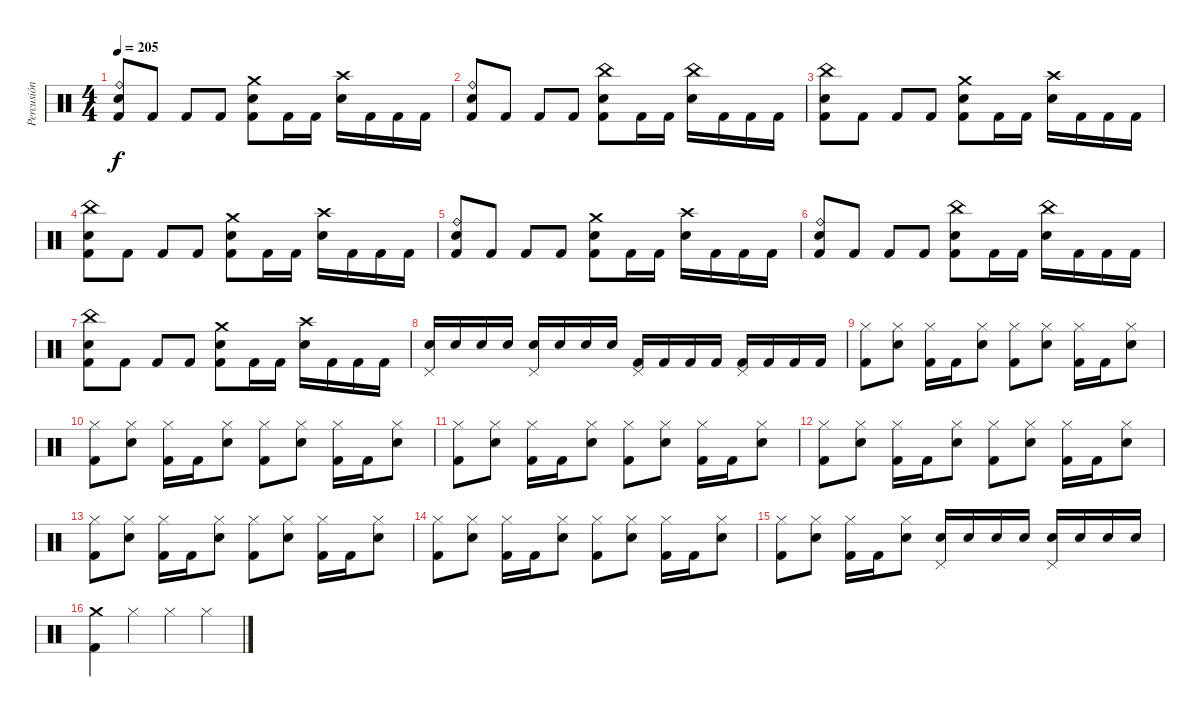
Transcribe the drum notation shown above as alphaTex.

\track ("Percusión" "Percusión") {instrument percussion}
\staff {score}
\articulation defaults
\ts (4 4)
\tempo 205
\clef neutral
\ks c
("Snare (hit) 2" "Ride (bell)" "Kick (hit) 2").8{dy f} "Kick (hit) 2".8 "Kick (hit) 2".8 "Kick (hit) 2".8 ("Snare (hit) 2" "Crash medium (hit)" "Kick (hit) 2").8 "Kick (hit) 2".16 "Kick (hit) 2".16 ("Crash high (hit)" "Snare (hit) 2").16 "Kick (hit) 2".16 "Kick (hit) 2".16 "Kick (hit) 2".16 |
("Snare (hit) 2" "Ride (bell)" "Kick (hit) 2").8 "Kick (hit) 2".8 "Kick (hit) 2".8 "Kick (hit) 2".8 ("Snare (hit) 2" "China (hit)" "Kick (hit) 2").8 "Kick (hit) 2".16 "Kick (hit) 2".16 ("China (hit)" "Snare (hit) 2").16 "Kick (hit) 2".16 "Kick (hit) 2".16 "Kick (hit) 2".16 |
("Snare (hit) 2" "China (hit)" "Kick (hit) 2").8 "Kick (hit) 2".8 "Kick (hit) 2".8 "Kick (hit) 2".8 ("Snare (hit) 2" "Crash medium (hit)" "Kick (hit) 2").8 "Kick (hit) 2".16 "Kick (hit) 2".16 ("Crash high (hit)" "Snare (hit) 2").16 "Kick (hit) 2".16 "Kick (hit) 2".16 "Kick (hit) 2".16 |
("Snare (hit) 2" "China (hit)" "Kick (hit) 2").8 "Kick (hit) 2".8 "Kick (hit) 2".8 "Kick (hit) 2".8 ("Snare (hit) 2" "Crash medium (hit)" "Kick (hit) 2").8 "Kick (hit) 2".16 "Kick (hit) 2".16 ("Crash high (hit)" "Snare (hit) 2").16 "Kick (hit) 2".16 "Kick (hit) 2".16 "Kick (hit) 2".16 |
("Snare (hit) 2" "Ride (bell)" "Kick (hit) 2").8 "Kick (hit) 2".8 "Kick (hit) 2".8 "Kick (hit) 2".8 ("Snare (hit) 2" "Crash medium (hit)" "Kick (hit) 2").8 "Kick (hit) 2".16 "Kick (hit) 2".16 ("Crash high (hit)" "Snare (hit) 2").16 "Kick (hit) 2".16 "Kick (hit) 2".16 "Kick (hit) 2".16 |
("Snare (hit) 2" "Ride (bell)" "Kick (hit) 2").8 "Kick (hit) 2".8 "Kick (hit) 2".8 "Kick (hit) 2".8 ("Snare (hit) 2" "China (hit)" "Kick (hit) 2").8 "Kick (hit) 2".16 "Kick (hit) 2".16 ("China (hit)" "Snare (hit) 2").16 "Kick (hit) 2".16 "Kick (hit) 2".16 "Kick (hit) 2".16 |
("Snare (hit) 2" "China (hit)" "Kick (hit) 2").8 "Kick (hit) 2".8 "Kick (hit) 2".8 "Kick (hit) 2".8 ("Snare (hit) 2" "Crash medium (hit)" "Kick (hit) 2").8 "Kick (hit) 2".16 "Kick (hit) 2".16 ("Crash high (hit)" "Snare (hit) 2").16 "Kick (hit) 2".16 "Kick (hit) 2".16 "Kick (hit) 2".16 |
("Pedal Hi-Hat (hit)" "Snare (hit) 2").16 "Snare (hit) 2".16 "Snare (hit) 2".16 "Snare (hit) 2".16 ("Pedal Hi-Hat (hit)" "Snare (hit) 2").16 "Snare (hit) 2".16 "Snare (hit) 2".16 "Snare (hit) 2".16 ("Pedal Hi-Hat (hit)" "Kick (hit) 2").16 "Kick (hit) 2".16 "Kick (hit) 2".16 "Kick (hit) 2".16 ("Pedal Hi-Hat (hit)" "Kick (hit) 2").16 "Kick (hit) 2".16 "Kick (hit) 2".16 "Kick (hit) 2".16 |
("Hi-Hat (closed)" "Kick (hit) 2").8 ("Hi-Hat (closed)" "Snare (hit) 2").8 ("Hi-Hat (closed)" "Kick (hit) 2").16 "Kick (hit) 2".16 ("Hi-Hat (closed)" "Snare (hit) 2").8 ("Hi-Hat (closed)" "Kick (hit) 2").8 ("Hi-Hat (closed)" "Snare (hit) 2").8 ("Hi-Hat (closed)" "Kick (hit) 2").16 "Kick (hit) 2".16 ("Hi-Hat (closed)" "Snare (hit) 2").8 |
("Hi-Hat (closed)" "Kick (hit) 2").8 ("Hi-Hat (closed)" "Snare (hit) 2").8 ("Hi-Hat (closed)" "Kick (hit) 2").16 "Kick (hit) 2".16 ("Hi-Hat (closed)" "Snare (hit) 2").8 ("Hi-Hat (closed)" "Kick (hit) 2").8 ("Hi-Hat (closed)" "Snare (hit) 2").8 ("Hi-Hat (closed)" "Kick (hit) 2").16 "Kick (hit) 2".16 ("Hi-Hat (closed)" "Snare (hit) 2").8 |
("Hi-Hat (closed)" "Kick (hit) 2").8 ("Hi-Hat (closed)" "Snare (hit) 2").8 ("Hi-Hat (closed)" "Kick (hit) 2").16 "Kick (hit) 2".16 ("Hi-Hat (closed)" "Snare (hit) 2").8 ("Hi-Hat (closed)" "Kick (hit) 2").8 ("Hi-Hat (closed)" "Snare (hit) 2").8 ("Hi-Hat (closed)" "Kick (hit) 2").16 "Kick (hit) 2".16 ("Hi-Hat (closed)" "Snare (hit) 2").8 |
("Hi-Hat (closed)" "Kick (hit) 2").8 ("Hi-Hat (closed)" "Snare (hit) 2").8 ("Hi-Hat (closed)" "Kick (hit) 2").16 "Kick (hit) 2".16 ("Hi-Hat (closed)" "Snare (hit) 2").8 ("Hi-Hat (closed)" "Kick (hit) 2").8 ("Hi-Hat (closed)" "Snare (hit) 2").8 ("Hi-Hat (closed)" "Kick (hit) 2").16 "Kick (hit) 2".16 ("Hi-Hat (closed)" "Snare (hit) 2").8 |
("Hi-Hat (closed)" "Kick (hit) 2").8 ("Hi-Hat (closed)" "Snare (hit) 2").8 ("Hi-Hat (closed)" "Kick (hit) 2").16 "Kick (hit) 2".16 ("Hi-Hat (closed)" "Snare (hit) 2").8 ("Hi-Hat (closed)" "Kick (hit) 2").8 ("Hi-Hat (closed)" "Snare (hit) 2").8 ("Hi-Hat (closed)" "Kick (hit) 2").16 "Kick (hit) 2".16 ("Hi-Hat (closed)" "Snare (hit) 2").8 |
("Hi-Hat (closed)" "Kick (hit) 2").8 ("Hi-Hat (closed)" "Snare (hit) 2").8 ("Hi-Hat (closed)" "Kick (hit) 2").16 "Kick (hit) 2".16 ("Hi-Hat (closed)" "Snare (hit) 2").8 ("Hi-Hat (closed)" "Kick (hit) 2").8 ("Hi-Hat (closed)" "Snare (hit) 2").8 ("Hi-Hat (closed)" "Kick (hit) 2").16 "Kick (hit) 2".16 ("Hi-Hat (closed)" "Snare (hit) 2").8 |
("Hi-Hat (closed)" "Kick (hit) 2").8 ("Hi-Hat (closed)" "Snare (hit) 2").8 ("Hi-Hat (closed)" "Kick (hit) 2").16 "Kick (hit) 2".16 ("Hi-Hat (closed)" "Snare (hit) 2").8 ("Pedal Hi-Hat (hit)" "Snare (hit) 2").16 "Snare (hit) 2".16 "Snare (hit) 2".16 "Snare (hit) 2".16 ("Pedal Hi-Hat (hit)" "Snare (hit) 2").16 "Snare (hit) 2".16 "Snare (hit) 2".16 "Snare (hit) 2".16 |
("Crash medium (hit)" "Kick (hit) 2").4 "Hi-Hat (closed)".4 "Hi-Hat (closed)".4 "Hi-Hat (closed)".4
